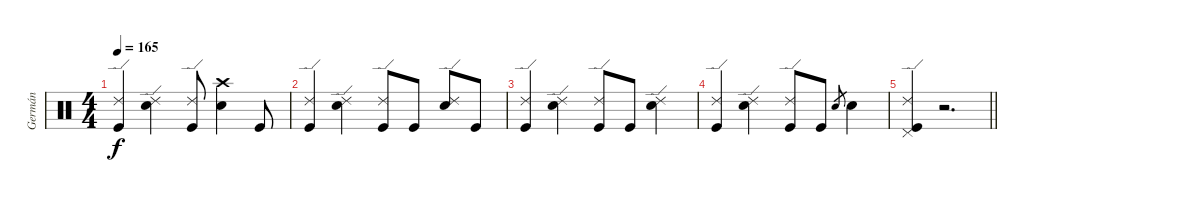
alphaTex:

\track ("Germán" "Germán") {instrument percussion}
\staff {score}
\articulation defaults
\ts (4 4)
\tempo 165
\clef neutral
\ks c
("Ride (edge) 2" "Kick (hit)").4{dy f} ("Ride (edge) 2" "Electric Snare (hit)").4 ("Ride (edge) 2" "Kick (hit)").8 ("Crash high (hit)" "Electric Snare (hit)").4 "Kick (hit)".8 |
("Ride (edge) 2" "Kick (hit)").4 ("Ride (edge) 2" "Electric Snare (hit)").4 ("Ride (edge) 2" "Kick (hit)").8 "Kick (hit)".8 ("Ride (edge) 2" "Electric Snare (hit)").8 "Kick (hit)".8 |
("Ride (edge) 2" "Kick (hit)").4 ("Ride (edge) 2" "Electric Snare (hit)").4 ("Ride (edge) 2" "Kick (hit)").8 "Kick (hit)".8 ("Ride (edge) 2" "Electric Snare (hit)").4 |
("Ride (edge) 2" "Kick (hit)").4 ("Ride (edge) 2" "Electric Snare (hit)").4 ("Ride (edge) 2" "Kick (hit)").8 "Kick (hit)".8 "Electric Snare (hit)".8{gr} "Electric Snare (hit)".4 |
\barLineRight lightlight
("Ride (edge) 2" "Pedal Hi-Hat (hit)" "Kick (hit)").4 r.2{d}
